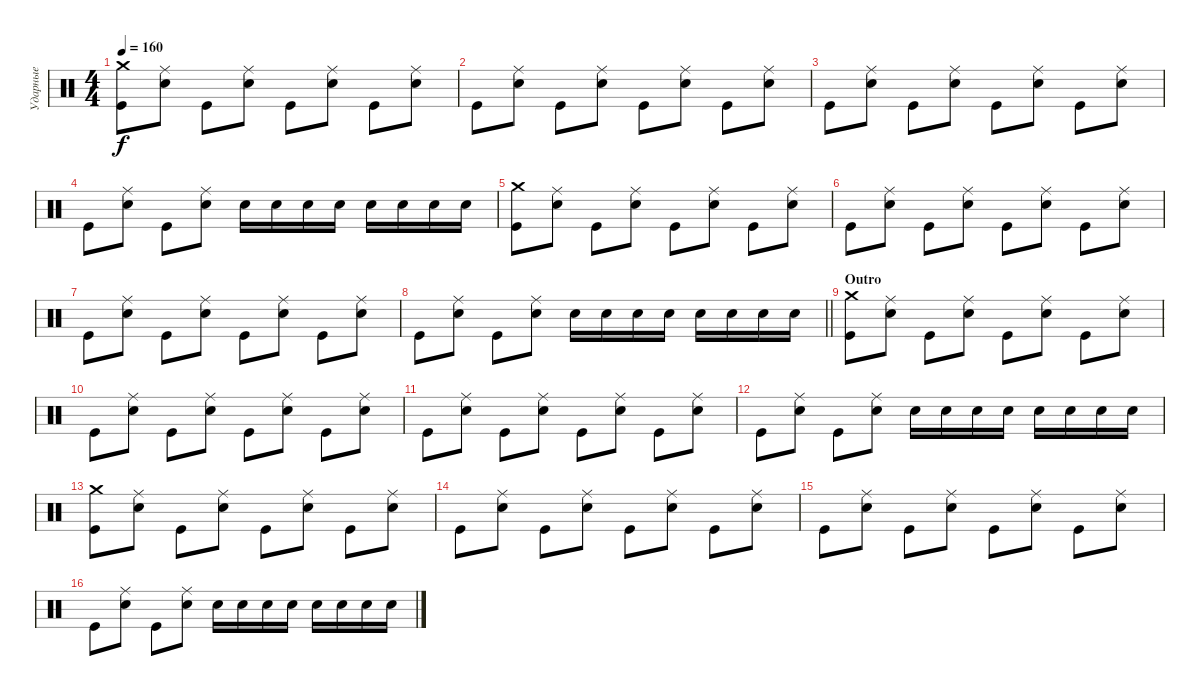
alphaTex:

\track ("Ударные" "Ударные") {instrument percussion}
\staff {score}
\articulation defaults
\ts (4 4)
\tempo 160
\clef neutral
\ks c
("Crash medium (hit)" "Kick (hit)").8{dy f} ("Ride (middle)" "Electric Snare (hit)").8 "Kick (hit)".8 ("Ride (middle)" "Electric Snare (hit)").8 "Kick (hit)".8 ("Ride (middle)" "Electric Snare (hit)").8 "Kick (hit)".8 ("Ride (middle)" "Electric Snare (hit)").8 |
"Kick (hit)".8 ("Ride (middle)" "Electric Snare (hit)").8 "Kick (hit)".8 ("Ride (middle)" "Electric Snare (hit)").8 "Kick (hit)".8 ("Ride (middle)" "Electric Snare (hit)").8 "Kick (hit)".8 ("Ride (middle)" "Electric Snare (hit)").8 |
"Kick (hit)".8 ("Ride (middle)" "Electric Snare (hit)").8 "Kick (hit)".8 ("Ride (middle)" "Electric Snare (hit)").8 "Kick (hit)".8 ("Ride (middle)" "Electric Snare (hit)").8 "Kick (hit)".8 ("Ride (middle)" "Electric Snare (hit)").8 |
"Kick (hit)".8 ("Ride (middle)" "Electric Snare (hit)").8 "Kick (hit)".8 ("Ride (middle)" "Electric Snare (hit)").8 "Electric Snare (hit)".16 "Electric Snare (hit)".16 "Electric Snare (hit)".16 "Electric Snare (hit)".16 "Electric Snare (hit)".16 "Electric Snare (hit)".16 "Electric Snare (hit)".16 "Electric Snare (hit)".16 |
("Crash medium (hit)" "Kick (hit)").8 ("Ride (middle)" "Electric Snare (hit)").8 "Kick (hit)".8 ("Ride (middle)" "Electric Snare (hit)").8 "Kick (hit)".8 ("Ride (middle)" "Electric Snare (hit)").8 "Kick (hit)".8 ("Ride (middle)" "Electric Snare (hit)").8 |
"Kick (hit)".8 ("Ride (middle)" "Electric Snare (hit)").8 "Kick (hit)".8 ("Ride (middle)" "Electric Snare (hit)").8 "Kick (hit)".8 ("Ride (middle)" "Electric Snare (hit)").8 "Kick (hit)".8 ("Ride (middle)" "Electric Snare (hit)").8 |
"Kick (hit)".8 ("Ride (middle)" "Electric Snare (hit)").8 "Kick (hit)".8 ("Ride (middle)" "Electric Snare (hit)").8 "Kick (hit)".8 ("Ride (middle)" "Electric Snare (hit)").8 "Kick (hit)".8 ("Ride (middle)" "Electric Snare (hit)").8 |
\barLineRight lightlight "Kick (hit)".8
("Ride (middle)" "Electric Snare (hit)").8 "Kick (hit)".8 ("Ride (middle)" "Electric Snare (hit)").8 "Electric Snare (hit)".16 "Electric Snare (hit)".16 "Electric Snare (hit)".16 "Electric Snare (hit)".16 "Electric Snare (hit)".16 "Electric Snare (hit)".16 "Electric Snare (hit)".16 "Electric Snare (hit)".16 |
\section ("" "Outro")
("Crash medium (hit)" "Kick (hit)").8 ("Ride (middle)" "Electric Snare (hit)").8 "Kick (hit)".8 ("Ride (middle)" "Electric Snare (hit)").8 "Kick (hit)".8 ("Ride (middle)" "Electric Snare (hit)").8 "Kick (hit)".8 ("Ride (middle)" "Electric Snare (hit)").8 |
"Kick (hit)".8 ("Ride (middle)" "Electric Snare (hit)").8 "Kick (hit)".8 ("Ride (middle)" "Electric Snare (hit)").8 "Kick (hit)".8 ("Ride (middle)" "Electric Snare (hit)").8 "Kick (hit)".8 ("Ride (middle)" "Electric Snare (hit)").8 |
"Kick (hit)".8 ("Ride (middle)" "Electric Snare (hit)").8 "Kick (hit)".8 ("Ride (middle)" "Electric Snare (hit)").8 "Kick (hit)".8 ("Ride (middle)" "Electric Snare (hit)").8 "Kick (hit)".8 ("Ride (middle)" "Electric Snare (hit)").8 |
"Kick (hit)".8 ("Ride (middle)" "Electric Snare (hit)").8 "Kick (hit)".8 ("Ride (middle)" "Electric Snare (hit)").8 "Electric Snare (hit)".16 "Electric Snare (hit)".16 "Electric Snare (hit)".16 "Electric Snare (hit)".16 "Electric Snare (hit)".16 "Electric Snare (hit)".16 "Electric Snare (hit)".16 "Electric Snare (hit)".16 |
("Crash medium (hit)" "Kick (hit)").8 ("Ride (middle)" "Electric Snare (hit)").8 "Kick (hit)".8 ("Ride (middle)" "Electric Snare (hit)").8 "Kick (hit)".8 ("Ride (middle)" "Electric Snare (hit)").8 "Kick (hit)".8 ("Ride (middle)" "Electric Snare (hit)").8 |
"Kick (hit)".8 ("Ride (middle)" "Electric Snare (hit)").8 "Kick (hit)".8 ("Ride (middle)" "Electric Snare (hit)").8 "Kick (hit)".8 ("Ride (middle)" "Electric Snare (hit)").8 "Kick (hit)".8 ("Ride (middle)" "Electric Snare (hit)").8 |
"Kick (hit)".8 ("Ride (middle)" "Electric Snare (hit)").8 "Kick (hit)".8 ("Ride (middle)" "Electric Snare (hit)").8 "Kick (hit)".8 ("Ride (middle)" "Electric Snare (hit)").8 "Kick (hit)".8 ("Ride (middle)" "Electric Snare (hit)").8 |
"Kick (hit)".8 ("Ride (middle)" "Electric Snare (hit)").8 "Kick (hit)".8 ("Ride (middle)" "Electric Snare (hit)").8 "Electric Snare (hit)".16 "Electric Snare (hit)".16 "Electric Snare (hit)".16 "Electric Snare (hit)".16 "Electric Snare (hit)".16 "Electric Snare (hit)".16 "Electric Snare (hit)".16 "Electric Snare (hit)".16
